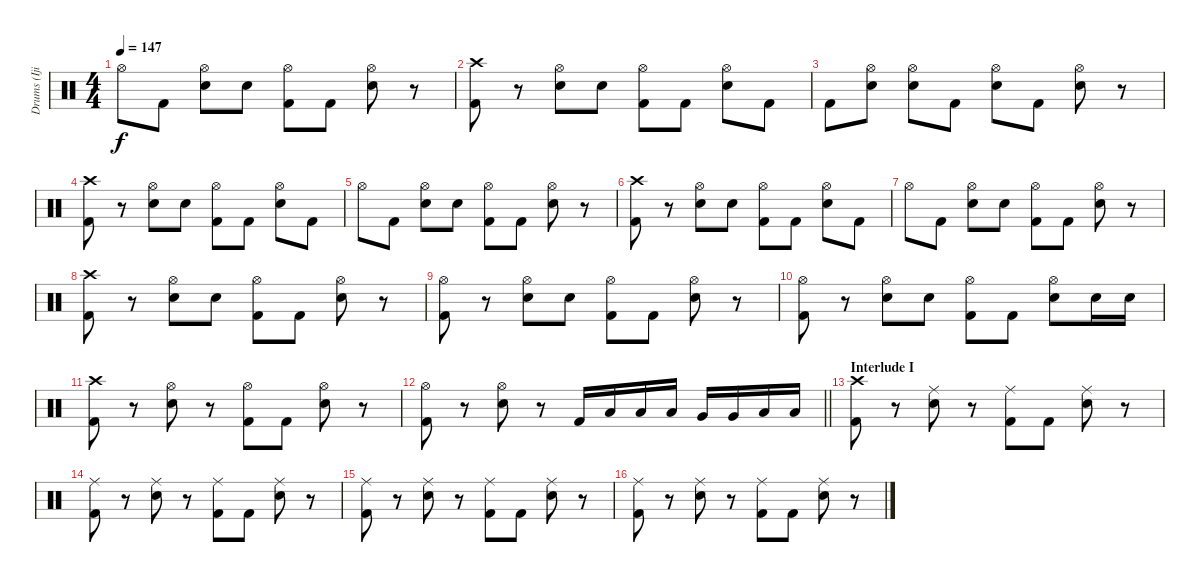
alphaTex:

\track ("Drums (Ijichi)" "Drums (Iji") {instrument percussion}
\staff {score}
\articulation defaults
\ts (4 4)
\tempo 147
\clef neutral
\ks c "Hi-Hat (open)".8{dy f} "Kick (hit) 2".8
("Hi-Hat (open)" "Snare (hit) 2").8 "Snare (hit) 2".8 ("Hi-Hat (open)" "Kick (hit) 2").8 "Kick (hit) 2".8 ("Hi-Hat (open)" "Snare (hit) 2").8 r.8 |
("Crash high (hit)" "Kick (hit) 2").8 r.8 ("Hi-Hat (open)" "Snare (hit) 2").8 "Snare (hit) 2".8 ("Hi-Hat (open)" "Kick (hit) 2").8 "Kick (hit) 2".8 ("Hi-Hat (open)" "Snare (hit) 2").8 "Kick (hit) 2".8 |
"Kick (hit) 2".8 ("Hi-Hat (open)" "Snare (hit) 2").8 ("Hi-Hat (open)" "Snare (hit) 2").8 "Kick (hit) 2".8 ("Hi-Hat (open)" "Snare (hit) 2").8 "Kick (hit) 2".8 ("Hi-Hat (open)" "Snare (hit) 2").8 r.8 |
("Crash high (hit)" "Kick (hit) 2").8 r.8 ("Hi-Hat (open)" "Snare (hit) 2").8 "Snare (hit) 2".8 ("Hi-Hat (open)" "Kick (hit) 2").8 "Kick (hit) 2".8 ("Hi-Hat (open)" "Snare (hit) 2").8 "Kick (hit) 2".8 |
"Hi-Hat (open)".8 "Kick (hit) 2".8 ("Hi-Hat (open)" "Snare (hit) 2").8 "Snare (hit) 2".8 ("Hi-Hat (open)" "Kick (hit) 2").8 "Kick (hit) 2".8 ("Hi-Hat (open)" "Snare (hit) 2").8 r.8 |
("Crash high (hit)" "Kick (hit) 2").8 r.8 ("Hi-Hat (open)" "Snare (hit) 2").8 "Snare (hit) 2".8 ("Hi-Hat (open)" "Kick (hit) 2").8 "Kick (hit) 2".8 ("Hi-Hat (open)" "Snare (hit) 2").8 "Kick (hit) 2".8 |
"Hi-Hat (open)".8 "Kick (hit) 2".8 ("Hi-Hat (open)" "Snare (hit) 2").8 "Snare (hit) 2".8 ("Hi-Hat (open)" "Kick (hit) 2").8 "Kick (hit) 2".8 ("Hi-Hat (open)" "Snare (hit) 2").8 r.8 |
("Crash high (hit)" "Kick (hit) 2").8 r.8 ("Hi-Hat (open)" "Snare (hit) 2").8 "Snare (hit) 2".8 ("Hi-Hat (open)" "Kick (hit) 2").8 "Kick (hit) 2".8 ("Hi-Hat (open)" "Snare (hit) 2").8 r.8 |
("Hi-Hat (open)" "Kick (hit) 2").8 r.8 ("Hi-Hat (open)" "Snare (hit) 2").8 "Snare (hit) 2".8 ("Hi-Hat (open)" "Kick (hit) 2").8 "Kick (hit) 2".8 ("Hi-Hat (open)" "Snare (hit) 2").8 r.8 |
("Hi-Hat (open)" "Kick (hit) 2").8 r.8 ("Hi-Hat (open)" "Snare (hit) 2").8 "Snare (hit) 2".8 ("Hi-Hat (open)" "Kick (hit) 2").8 "Kick (hit) 2".8 ("Hi-Hat (open)" "Snare (hit) 2").8 "Snare (hit) 2".16 "Snare (hit) 2".16 |
("Crash high (hit)" "Kick (hit) 2").8 r.8 ("Hi-Hat (open)" "Snare (hit) 2").8 r.8 ("Hi-Hat (open)" "Kick (hit) 2").8 "Kick (hit) 2".8 ("Hi-Hat (open)" "Snare (hit) 2").8 r.8 |
\barLineRight lightlight
("Hi-Hat (open)" "Kick (hit) 2").8 r.8 ("Hi-Hat (open)" "Snare (hit) 2").8 r.8 "Kick (hit) 2".16 "Low Tom (hit)".16 "Low Tom (hit)".16 "Low Tom (hit)".16 "Very Low Tom (hit)".16 "Very Low Tom (hit)".16 "Low Floor Tom (hit)".16 "Low Floor Tom (hit)".16 |
\section ("" "Interlude I")
("Crash high (hit)" "Kick (hit) 2").8 r.8 ("Ride (middle)" "Snare (hit) 2").8 r.8 ("Ride (middle)" "Kick (hit) 2").8 "Kick (hit) 2".8 ("Ride (middle)" "Snare (hit) 2").8 r.8 |
("Ride (middle)" "Kick (hit) 2").8 r.8 ("Ride (middle)" "Snare (hit) 2").8 r.8 ("Ride (middle)" "Kick (hit) 2").8 "Kick (hit) 2".8 ("Ride (middle)" "Snare (hit) 2").8 r.8 |
("Ride (middle)" "Kick (hit) 2").8 r.8 ("Ride (middle)" "Snare (hit) 2").8 r.8 ("Ride (middle)" "Kick (hit) 2").8 "Kick (hit) 2".8 ("Ride (middle)" "Snare (hit) 2").8 r.8 |
("Ride (middle)" "Kick (hit) 2").8 r.8 ("Ride (middle)" "Snare (hit) 2").8 r.8 ("Ride (middle)" "Kick (hit) 2").8 "Kick (hit) 2".8 ("Ride (middle)" "Snare (hit) 2").8 r.8
